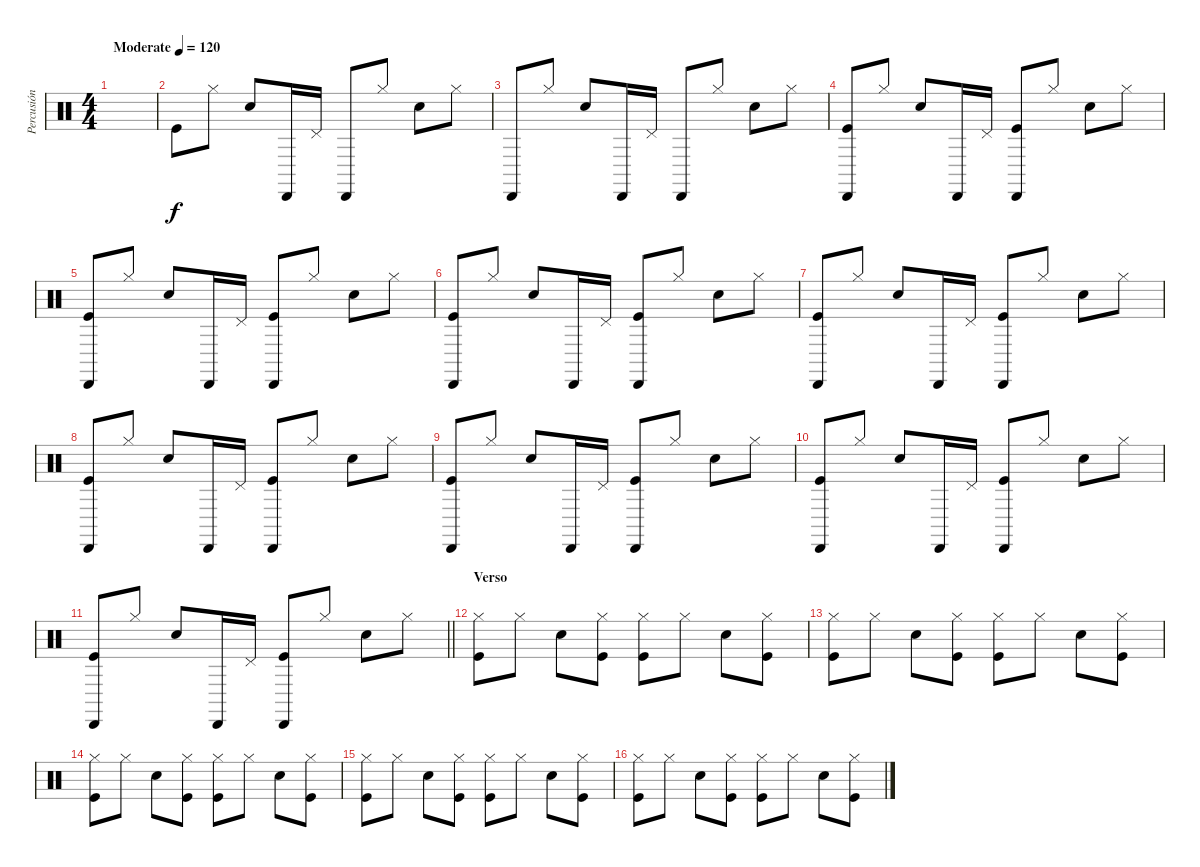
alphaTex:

\track ("Percusión" "Percusión") {instrument percussion}
\staff {score}
\articulation defaults
\ts (4 4)
\tempo (120 "Moderate")
\clef neutral
\ks c
|
"Kick (hit)".8 "Hi-Hat (closed)".8 "Electric Snare (hit)".8 "Cabasa (hit)".16 "Pedal Hi-Hat (hit)".16 "Cabasa (hit)".8 "Hi-Hat (closed)".8 "Electric Snare (hit)".8 "Hi-Hat (closed)".8 |
"Cabasa (hit)".8 "Hi-Hat (closed)".8 "Electric Snare (hit)".8 "Cabasa (hit)".16 "Pedal Hi-Hat (hit)".16 "Cabasa (hit)".8 "Hi-Hat (closed)".8 "Electric Snare (hit)".8 "Hi-Hat (closed)".8 |
("Kick (hit)" "Cabasa (hit)").8 "Hi-Hat (closed)".8 "Electric Snare (hit)".8 "Cabasa (hit)".16 "Pedal Hi-Hat (hit)".16 ("Kick (hit)" "Cabasa (hit)").8 "Hi-Hat (closed)".8 "Electric Snare (hit)".8 "Hi-Hat (closed)".8 |
("Kick (hit)" "Cabasa (hit)").8 "Hi-Hat (closed)".8 "Electric Snare (hit)".8 "Cabasa (hit)".16 "Pedal Hi-Hat (hit)".16 ("Kick (hit)" "Cabasa (hit)").8 "Hi-Hat (closed)".8 "Electric Snare (hit)".8 "Hi-Hat (closed)".8 |
("Kick (hit)" "Cabasa (hit)").8 "Hi-Hat (closed)".8 "Electric Snare (hit)".8 "Cabasa (hit)".16 "Pedal Hi-Hat (hit)".16 ("Kick (hit)" "Cabasa (hit)").8 "Hi-Hat (closed)".8 "Electric Snare (hit)".8 "Hi-Hat (closed)".8 |
("Kick (hit)" "Cabasa (hit)").8 "Hi-Hat (closed)".8 "Electric Snare (hit)".8 "Cabasa (hit)".16 "Pedal Hi-Hat (hit)".16 ("Kick (hit)" "Cabasa (hit)").8 "Hi-Hat (closed)".8 "Electric Snare (hit)".8 "Hi-Hat (closed)".8 |
("Kick (hit)" "Cabasa (hit)").8 "Hi-Hat (closed)".8 "Electric Snare (hit)".8 "Cabasa (hit)".16 "Pedal Hi-Hat (hit)".16 ("Kick (hit)" "Cabasa (hit)").8 "Hi-Hat (closed)".8 "Electric Snare (hit)".8 "Hi-Hat (closed)".8 |
("Kick (hit)" "Cabasa (hit)").8 "Hi-Hat (closed)".8 "Electric Snare (hit)".8 "Cabasa (hit)".16 "Pedal Hi-Hat (hit)".16 ("Kick (hit)" "Cabasa (hit)").8 "Hi-Hat (closed)".8 "Electric Snare (hit)".8 "Hi-Hat (closed)".8 |
("Kick (hit)" "Cabasa (hit)").8 "Hi-Hat (closed)".8 "Electric Snare (hit)".8 "Cabasa (hit)".16 "Pedal Hi-Hat (hit)".16 ("Kick (hit)" "Cabasa (hit)").8 "Hi-Hat (closed)".8 "Electric Snare (hit)".8 "Hi-Hat (closed)".8 |
\barLineRight lightlight
("Kick (hit)" "Cabasa (hit)").8 "Hi-Hat (closed)".8 "Electric Snare (hit)".8 "Cabasa (hit)".16 "Pedal Hi-Hat (hit)".16 ("Kick (hit)" "Cabasa (hit)").8 "Hi-Hat (closed)".8 "Electric Snare (hit)".8 "Hi-Hat (closed)".8 |
\section ("" "Verso")
("Kick (hit)" "Hi-Hat (closed)").8 "Hi-Hat (closed)".8 "Electric Snare (hit)".8 ("Kick (hit)" "Hi-Hat (closed)").8 ("Kick (hit)" "Hi-Hat (closed)").8 "Hi-Hat (closed)".8 "Electric Snare (hit)".8 ("Kick (hit)" "Hi-Hat (closed)").8 |
("Kick (hit)" "Hi-Hat (closed)").8 "Hi-Hat (closed)".8 "Electric Snare (hit)".8 ("Kick (hit)" "Hi-Hat (closed)").8 ("Kick (hit)" "Hi-Hat (closed)").8 "Hi-Hat (closed)".8 "Electric Snare (hit)".8 ("Kick (hit)" "Hi-Hat (closed)").8 |
("Kick (hit)" "Hi-Hat (closed)").8 "Hi-Hat (closed)".8 "Electric Snare (hit)".8 ("Kick (hit)" "Hi-Hat (closed)").8 ("Kick (hit)" "Hi-Hat (closed)").8 "Hi-Hat (closed)".8 "Electric Snare (hit)".8 ("Kick (hit)" "Hi-Hat (closed)").8 |
("Kick (hit)" "Hi-Hat (closed)").8 "Hi-Hat (closed)".8 "Electric Snare (hit)".8 ("Kick (hit)" "Hi-Hat (closed)").8 ("Kick (hit)" "Hi-Hat (closed)").8 "Hi-Hat (closed)".8 "Electric Snare (hit)".8 ("Kick (hit)" "Hi-Hat (closed)").8 |
("Kick (hit)" "Hi-Hat (closed)").8 "Hi-Hat (closed)".8 "Electric Snare (hit)".8 ("Kick (hit)" "Hi-Hat (closed)").8 ("Kick (hit)" "Hi-Hat (closed)").8 "Hi-Hat (closed)".8 "Electric Snare (hit)".8 ("Kick (hit)" "Hi-Hat (closed)").8
